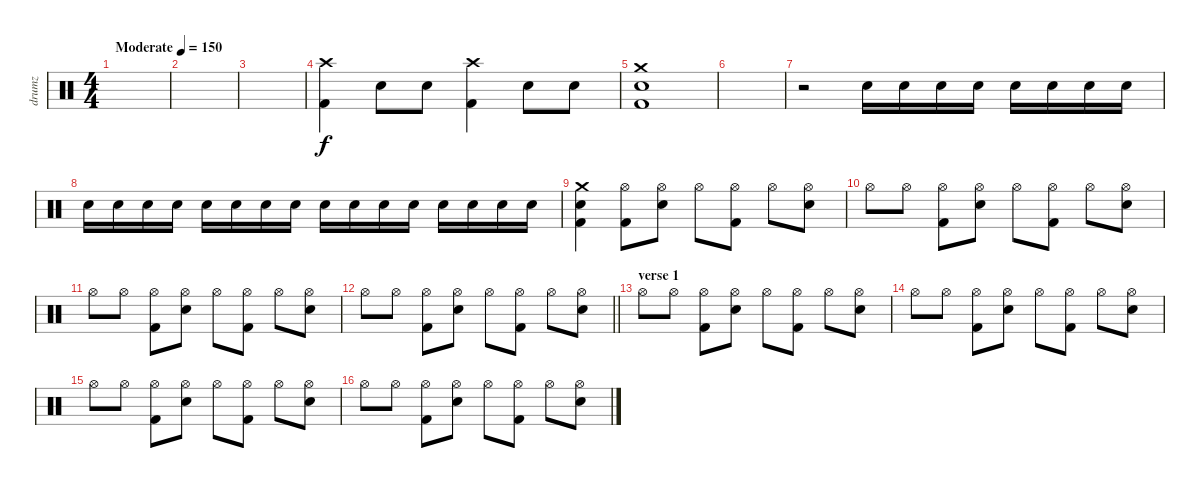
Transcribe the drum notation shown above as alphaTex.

\track ("drumz" "drumz") {instrument percussion}
\staff {score}
\articulation defaults
\ts (4 4)
\tempo (150 "Moderate")
\clef neutral
\ks c
|
|
|
("Crash high (hit)" "Kick (hit) 2").4 "Electric Snare (hit)".8 "Electric Snare (hit)".8 ("Crash high (hit)" "Kick (hit) 2").4 "Electric Snare (hit)".8 "Electric Snare (hit)".8 |
("Crash medium (hit)" "Electric Snare (hit)" "Kick (hit) 2").1 |
|
r.2 "Electric Snare (hit)".16{volume 0} "Electric Snare (hit)".16{volume 1} "Electric Snare (hit)".16{volume 2} "Electric Snare (hit)".16{volume 3} "Electric Snare (hit)".16{volume 4} "Electric Snare (hit)".16{volume 5} "Electric Snare (hit)".16{volume 6} "Electric Snare (hit)".16{volume 7} |
"Electric Snare (hit)".16{volume 8} "Electric Snare (hit)".16{volume 9} "Electric Snare (hit)".16 "Electric Snare (hit)".16{volume 10} "Electric Snare (hit)".16 "Electric Snare (hit)".16{volume 11} "Electric Snare (hit)".16 "Electric Snare (hit)".16{volume 12} "Electric Snare (hit)".16 "Electric Snare (hit)".16{volume 13} "Electric Snare (hit)".16 "Electric Snare (hit)".16 "Electric Snare (hit)".16 "Electric Snare (hit)".16 "Electric Snare (hit)".16 "Electric Snare (hit)".16 |
("Crash medium (hit)" "Electric Snare (hit)" "Kick (hit) 2").4 ("Hi-Hat (open)" "Kick (hit) 2").8 ("Hi-Hat (open)" "Electric Snare (hit)").8 "Hi-Hat (open)".8 ("Hi-Hat (open)" "Kick (hit) 2").8 "Hi-Hat (open)".8 ("Hi-Hat (open)" "Electric Snare (hit)").8 |
"Hi-Hat (open)".8 "Hi-Hat (open)".8 ("Hi-Hat (open)" "Kick (hit) 2").8 ("Hi-Hat (open)" "Electric Snare (hit)").8 "Hi-Hat (open)".8 ("Hi-Hat (open)" "Kick (hit) 2").8 "Hi-Hat (open)".8 ("Hi-Hat (open)" "Electric Snare (hit)").8 |
"Hi-Hat (open)".8 "Hi-Hat (open)".8 ("Hi-Hat (open)" "Kick (hit) 2").8 ("Hi-Hat (open)" "Electric Snare (hit)").8 "Hi-Hat (open)".8 ("Hi-Hat (open)" "Kick (hit) 2").8 "Hi-Hat (open)".8 ("Hi-Hat (open)" "Electric Snare (hit)").8 |
\barLineRight lightlight "Hi-Hat (open)".8 "Hi-Hat (open)".8
("Hi-Hat (open)" "Kick (hit) 2").8 ("Hi-Hat (open)" "Electric Snare (hit)").8 "Hi-Hat (open)".8 ("Hi-Hat (open)" "Kick (hit) 2").8 "Hi-Hat (open)".8 ("Hi-Hat (open)" "Electric Snare (hit)").8 |
\section ("" "verse 1")
"Hi-Hat (open)".8 "Hi-Hat (open)".8 ("Hi-Hat (open)" "Kick (hit) 2").8 ("Hi-Hat (open)" "Electric Snare (hit)").8 "Hi-Hat (open)".8 ("Hi-Hat (open)" "Kick (hit) 2").8 "Hi-Hat (open)".8 ("Hi-Hat (open)" "Electric Snare (hit)").8 |
"Hi-Hat (open)".8 "Hi-Hat (open)".8 ("Hi-Hat (open)" "Kick (hit) 2").8 ("Hi-Hat (open)" "Electric Snare (hit)").8 "Hi-Hat (open)".8 ("Hi-Hat (open)" "Kick (hit) 2").8 "Hi-Hat (open)".8 ("Hi-Hat (open)" "Electric Snare (hit)").8 |
"Hi-Hat (open)".8 "Hi-Hat (open)".8 ("Hi-Hat (open)" "Kick (hit) 2").8 ("Hi-Hat (open)" "Electric Snare (hit)").8 "Hi-Hat (open)".8 ("Hi-Hat (open)" "Kick (hit) 2").8 "Hi-Hat (open)".8 ("Hi-Hat (open)" "Electric Snare (hit)").8 |
"Hi-Hat (open)".8 "Hi-Hat (open)".8 ("Hi-Hat (open)" "Kick (hit) 2").8 ("Hi-Hat (open)" "Electric Snare (hit)").8 "Hi-Hat (open)".8 ("Hi-Hat (open)" "Kick (hit) 2").8 "Hi-Hat (open)".8 ("Hi-Hat (open)" "Electric Snare (hit)").8
